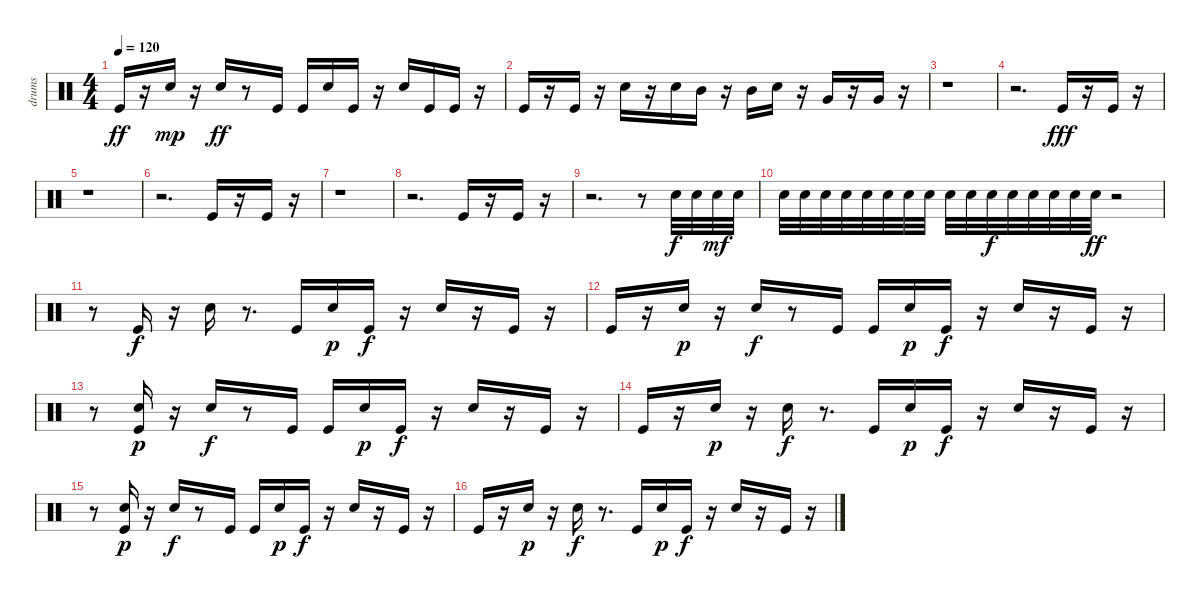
\track ("drums" "drums") {instrument percussion}
\staff {score}
\articulation defaults
\ts (4 4)
\tempo 120
\clef neutral
\ks c "Kick (hit)".16{dy ff}
r.16 "Electric Snare (hit)".16{dy mp} r.16 "Electric Snare (hit)".16{dy ff} r.8 "Kick (hit)".16 "Kick (hit)".16 "Electric Snare (hit)".16 "Kick (hit)".16 r.16 "Electric Snare (hit)".16 "Kick (hit)".16 "Kick (hit)".16 r.16 |
"Kick (hit)".16 r.16 "Kick (hit)".16 r.16 "Electric Snare (hit)".16 r.16 "Electric Snare (hit)".16 "Mid Tom (hit)".16 r.16 "Mid Tom (hit)".16 "Electric Snare (hit)".16 r.16 "Very Low Tom (hit)".16 r.16 "Very Low Tom (hit)".16 r.16 |
r.1 |
r.2{d} "Kick (hit)".16{dy fff} r.16 "Kick (hit)".16 r.16 |
r.1 |
r.2{d} "Kick (hit)".16 r.16 "Kick (hit)".16 r.16 |
r.1 |
r.2{d} "Kick (hit)".16 r.16 "Kick (hit)".16 r.16 |
r.2{d} r.8 "Electric Snare (hit)".32{dy f} "Electric Snare (hit)".32 "Electric Snare (hit)".32{dy mf} "Electric Snare (hit)".32 |
"Electric Snare (hit)".32 "Electric Snare (hit)".32 "Electric Snare (hit)".32 "Electric Snare (hit)".32 "Electric Snare (hit)".32 "Electric Snare (hit)".32 "Electric Snare (hit)".32 "Electric Snare (hit)".32 "Electric Snare (hit)".32 "Electric Snare (hit)".32 "Electric Snare (hit)".32{dy f} "Electric Snare (hit)".32 "Electric Snare (hit)".32 "Electric Snare (hit)".32 "Electric Snare (hit)".32 "Electric Snare (hit)".32{dy ff} r.2 |
r.8 "Kick (hit)".16{dy f} r.16 "Electric Snare (hit)".16 r.8{d} "Kick (hit)".16 "Electric Snare (hit)".16{dy p} "Kick (hit)".16{dy f} r.16 "Electric Snare (hit)".16 r.16 "Kick (hit)".16 r.16 |
"Kick (hit)".16 r.16 "Electric Snare (hit)".16{dy p} r.16 "Electric Snare (hit)".16{dy f} r.8 "Kick (hit)".16 "Kick (hit)".16 "Electric Snare (hit)".16{dy p} "Kick (hit)".16{dy f} r.16 "Electric Snare (hit)".16 r.16 "Kick (hit)".16 r.16 |
r.8 ("Electric Snare (hit)" "Kick (hit)").16{dy p} r.16 "Electric Snare (hit)".16{dy f} r.8 "Kick (hit)".16 "Kick (hit)".16 "Electric Snare (hit)".16{dy p} "Kick (hit)".16{dy f} r.16 "Electric Snare (hit)".16 r.16 "Kick (hit)".16 r.16 |
"Kick (hit)".16 r.16 "Electric Snare (hit)".16{dy p} r.16 "Electric Snare (hit)".16{dy f} r.8{d} "Kick (hit)".16 "Electric Snare (hit)".16{dy p} "Kick (hit)".16{dy f} r.16 "Electric Snare (hit)".16 r.16 "Kick (hit)".16 r.16 |
r.8 ("Electric Snare (hit)" "Kick (hit)").16{dy p} r.16 "Electric Snare (hit)".16{dy f} r.8 "Kick (hit)".16 "Kick (hit)".16 "Electric Snare (hit)".16{dy p} "Kick (hit)".16{dy f} r.16 "Electric Snare (hit)".16 r.16 "Kick (hit)".16 r.16 |
"Kick (hit)".16 r.16 "Electric Snare (hit)".16{dy p} r.16 "Electric Snare (hit)".16{dy f} r.8{d} "Kick (hit)".16 "Electric Snare (hit)".16{dy p} "Kick (hit)".16{dy f} r.16 "Electric Snare (hit)".16 r.16 "Kick (hit)".16 r.16
